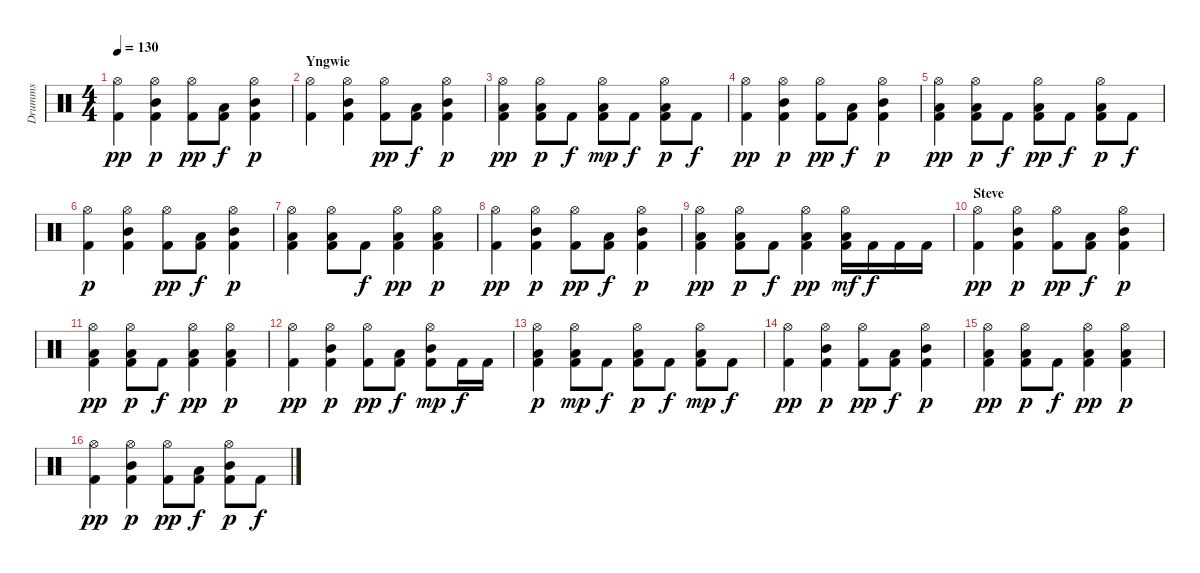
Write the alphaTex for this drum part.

\track ("Drumms" "Drumms") {instrument percussion}
\staff {score}
\articulation defaults
\ts (4 4)
\tempo 130
\clef neutral
\ks c
("Hi-Hat (open)" "Kick (hit) 2").4{dy pp} ("Hi-Hat (open)" "Kick (hit) 2" "Mid Tom (hit)").4{dy p} ("Hi-Hat (open)" "Kick (hit) 2").8{dy pp} ("Kick (hit) 2" "Low Tom (hit)").8{dy f} ("Hi-Hat (open)" "Kick (hit) 2" "Mid Tom (hit)").4{dy p} |
\section ("" "Yngwie")
("Hi-Hat (open)" "Kick (hit) 2").4 ("Hi-Hat (open)" "Kick (hit) 2" "Mid Tom (hit)").4 ("Hi-Hat (open)" "Kick (hit) 2").8{dy pp} ("Kick (hit) 2" "Low Tom (hit)").8{dy f} ("Hi-Hat (open)" "Kick (hit) 2" "Mid Tom (hit)").4{dy p} |
("Hi-Hat (open)" "Kick (hit) 2" "Low Tom (hit)").4{dy pp} ("Hi-Hat (open)" "Kick (hit) 2" "Low Tom (hit)").8{dy p} "Kick (hit) 2".8{dy f} ("Hi-Hat (open)" "Kick (hit) 2" "Low Tom (hit)").8{dy mp} "Kick (hit) 2".8{dy f} ("Hi-Hat (open)" "Kick (hit) 2" "Low Tom (hit)").8{dy p} "Kick (hit) 2".8{dy f} |
("Hi-Hat (open)" "Kick (hit) 2").4{dy pp} ("Hi-Hat (open)" "Kick (hit) 2" "Mid Tom (hit)").4{dy p} ("Hi-Hat (open)" "Kick (hit) 2").8{dy pp} ("Kick (hit) 2" "Low Tom (hit)").8{dy f} ("Hi-Hat (open)" "Kick (hit) 2" "Mid Tom (hit)").4{dy p} |
("Hi-Hat (open)" "Kick (hit) 2" "Low Tom (hit)").4{dy pp} ("Hi-Hat (open)" "Kick (hit) 2" "Low Tom (hit)").8{dy p} "Kick (hit) 2".8{dy f} ("Hi-Hat (open)" "Kick (hit) 2" "Low Tom (hit)").8{dy pp} "Kick (hit) 2".8{dy f} ("Hi-Hat (open)" "Kick (hit) 2" "Low Tom (hit)").8{dy p} "Kick (hit) 2".8{dy f} |
("Hi-Hat (open)" "Kick (hit) 2").4{dy p} ("Hi-Hat (open)" "Kick (hit) 2" "Mid Tom (hit)").4 ("Hi-Hat (open)" "Kick (hit) 2").8{dy pp} ("Kick (hit) 2" "Low Tom (hit)").8{dy f} ("Hi-Hat (open)" "Kick (hit) 2" "Mid Tom (hit)").4{dy p} |
("Hi-Hat (open)" "Kick (hit) 2" "Low Tom (hit)").4 ("Hi-Hat (open)" "Kick (hit) 2" "Low Tom (hit)").8 "Kick (hit) 2".8{dy f} ("Hi-Hat (open)" "Kick (hit) 2" "Low Tom (hit)").4{dy pp} ("Hi-Hat (open)" "Kick (hit) 2" "Low Tom (hit)").4{dy p} |
("Hi-Hat (open)" "Kick (hit) 2").4{dy pp} ("Hi-Hat (open)" "Kick (hit) 2" "Mid Tom (hit)").4{dy p} ("Hi-Hat (open)" "Kick (hit) 2").8{dy pp} ("Kick (hit) 2" "Low Tom (hit)").8{dy f} ("Hi-Hat (open)" "Kick (hit) 2" "Mid Tom (hit)").4{dy p} |
("Hi-Hat (open)" "Kick (hit) 2" "Low Tom (hit)").4{dy pp} ("Hi-Hat (open)" "Kick (hit) 2" "Low Tom (hit)").8{dy p} "Kick (hit) 2".8{dy f} ("Hi-Hat (open)" "Kick (hit) 2" "Low Tom (hit)").4{dy pp} ("Hi-Hat (open)" "Kick (hit) 2" "Low Tom (hit)").16{dy mf} "Kick (hit) 2".16{dy f} "Kick (hit) 2".16 "Kick (hit) 2".16 |
\section ("" "Steve")
("Hi-Hat (open)" "Kick (hit) 2").4{dy pp} ("Hi-Hat (open)" "Kick (hit) 2" "Mid Tom (hit)").4{dy p} ("Hi-Hat (open)" "Kick (hit) 2").8{dy pp} ("Kick (hit) 2" "Low Tom (hit)").8{dy f} ("Hi-Hat (open)" "Kick (hit) 2" "Mid Tom (hit)").4{dy p} |
("Hi-Hat (open)" "Kick (hit) 2" "Low Tom (hit)").4{dy pp} ("Hi-Hat (open)" "Kick (hit) 2" "Low Tom (hit)").8{dy p} "Kick (hit) 2".8{dy f} ("Hi-Hat (open)" "Kick (hit) 2" "Low Tom (hit)").4{dy pp} ("Hi-Hat (open)" "Kick (hit) 2" "Low Tom (hit)").4{dy p} |
("Hi-Hat (open)" "Kick (hit) 2").4{dy pp} ("Hi-Hat (open)" "Kick (hit) 2" "Mid Tom (hit)").4{dy p} ("Hi-Hat (open)" "Kick (hit) 2").8{dy pp} ("Kick (hit) 2" "Low Tom (hit)").8{dy f} ("Hi-Hat (open)" "Kick (hit) 2" "Mid Tom (hit)").8{dy mp} "Kick (hit) 2".16{dy f} "Kick (hit) 2".16 |
("Hi-Hat (open)" "Kick (hit) 2" "Low Tom (hit)").4{dy p} ("Hi-Hat (open)" "Kick (hit) 2" "Low Tom (hit)").8{dy mp} "Kick (hit) 2".8{dy f} ("Hi-Hat (open)" "Kick (hit) 2" "Low Tom (hit)").8{dy p} "Kick (hit) 2".8{dy f} ("Hi-Hat (open)" "Kick (hit) 2" "Low Tom (hit)").8{dy mp} "Kick (hit) 2".8{dy f} |
("Hi-Hat (open)" "Kick (hit) 2").4{dy pp} ("Hi-Hat (open)" "Kick (hit) 2" "Mid Tom (hit)").4{dy p} ("Hi-Hat (open)" "Kick (hit) 2").8{dy pp} ("Kick (hit) 2" "Low Tom (hit)").8{dy f} ("Hi-Hat (open)" "Kick (hit) 2" "Mid Tom (hit)").4{dy p} |
("Hi-Hat (open)" "Kick (hit) 2" "Low Tom (hit)").4{dy pp} ("Hi-Hat (open)" "Kick (hit) 2" "Low Tom (hit)").8{dy p} "Kick (hit) 2".8{dy f} ("Hi-Hat (open)" "Kick (hit) 2" "Low Tom (hit)").4{dy pp} ("Hi-Hat (open)" "Kick (hit) 2" "Low Tom (hit)").4{dy p} |
("Hi-Hat (open)" "Kick (hit) 2").4{dy pp} ("Hi-Hat (open)" "Kick (hit) 2" "Mid Tom (hit)").4{dy p} ("Hi-Hat (open)" "Kick (hit) 2").8{dy pp} ("Kick (hit) 2" "Low Tom (hit)").8{dy f} ("Hi-Hat (open)" "Kick (hit) 2" "Mid Tom (hit)").8{dy p} "Kick (hit) 2".8{dy f}
